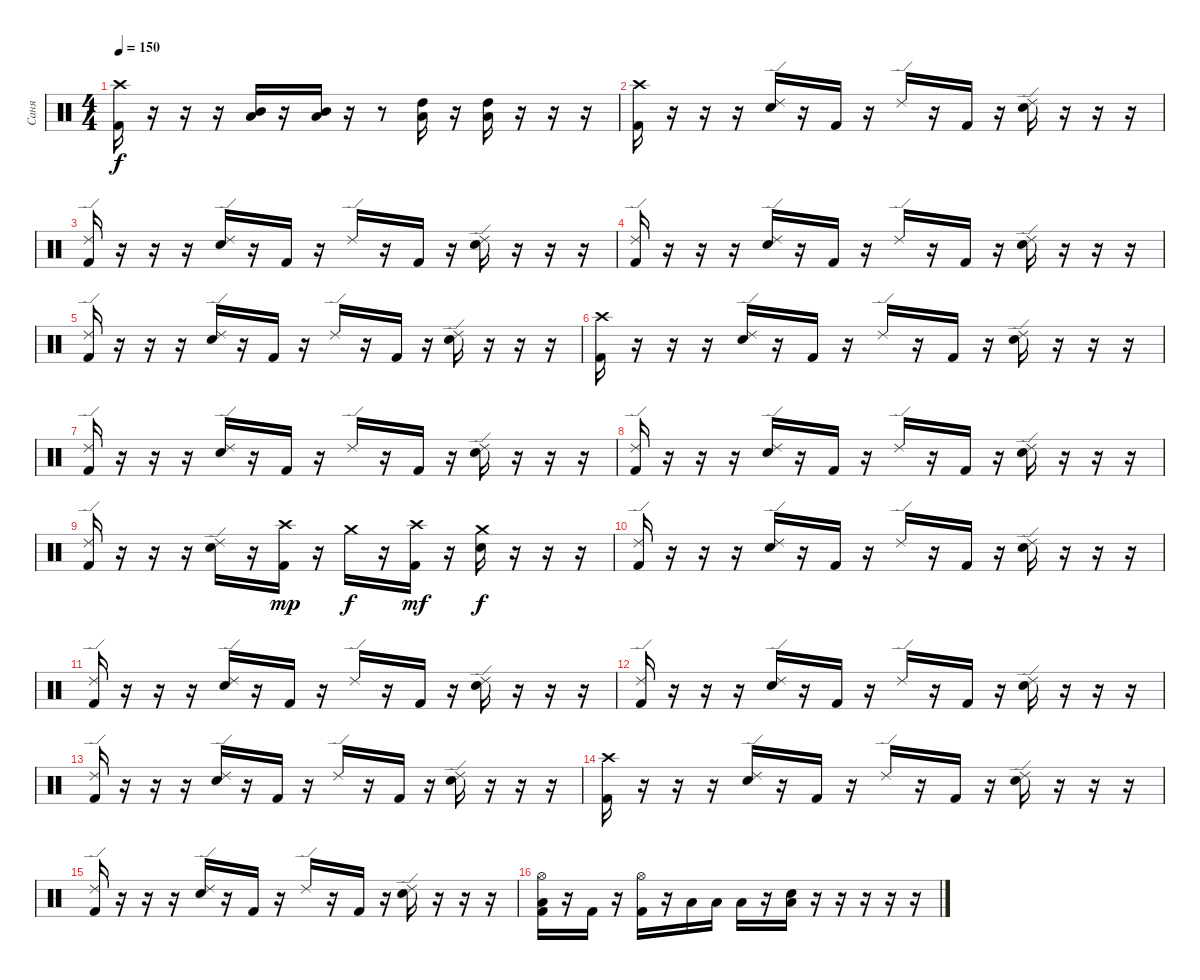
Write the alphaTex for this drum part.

\track ("Саня" "Саня") {instrument percussion}
\staff {score}
\articulation defaults
\ts (4 4)
\section ("" "")
\tempo 150
\clef neutral
\ks c
("Kick (hit) 2" "Crash high (hit)").16{dy f} r.16 r.16 r.16 ("Mid Tom (hit)" "Low Floor Tom (hit)").16 r.16 ("Mid Tom (hit)" "Low Floor Tom (hit)").16 r.16 r.8 ("High Tom (hit)" "Low Floor Tom (hit)").16 r.16 ("High Tom (hit)" "Low Floor Tom (hit)").16 r.16 r.16 r.16 |
("Kick (hit) 2" "Crash high (hit)").16 r.16 r.16 r.16 ("Snare (hit) 2" "Ride (edge) 2").16 r.16 "Kick (hit) 2".16 r.16 "Ride (edge) 2".16 r.16 "Kick (hit) 2".16 r.16 ("Snare (hit) 2" "Ride (edge) 2").16 r.16 r.16 r.16 |
("Kick (hit) 2" "Ride (edge) 2").16 r.16 r.16 r.16 ("Snare (hit) 2" "Ride (edge) 2").16 r.16 "Kick (hit) 2".16 r.16 "Ride (edge) 2".16 r.16 "Kick (hit) 2".16 r.16 ("Snare (hit) 2" "Ride (edge) 2").16 r.16 r.16 r.16 |
("Kick (hit) 2" "Ride (edge) 2").16 r.16 r.16 r.16 ("Snare (hit) 2" "Ride (edge) 2").16 r.16 "Kick (hit) 2".16 r.16 "Ride (edge) 2".16 r.16 "Kick (hit) 2".16 r.16 ("Snare (hit) 2" "Ride (edge) 2").16 r.16 r.16 r.16 |
("Kick (hit) 2" "Ride (edge) 2").16 r.16 r.16 r.16 ("Snare (hit) 2" "Ride (edge) 2").16 r.16 "Kick (hit) 2".16 r.16 "Ride (edge) 2".16 r.16 "Kick (hit) 2".16 r.16 ("Snare (hit) 2" "Ride (edge) 2").16 r.16 r.16 r.16 |
("Kick (hit) 2" "Crash high (hit)").16 r.16 r.16 r.16 ("Snare (hit) 2" "Ride (edge) 2").16 r.16 "Kick (hit) 2".16 r.16 "Ride (edge) 2".16 r.16 "Kick (hit) 2".16 r.16 ("Snare (hit) 2" "Ride (edge) 2").16 r.16 r.16 r.16 |
("Kick (hit) 2" "Ride (edge) 2").16 r.16 r.16 r.16 ("Snare (hit) 2" "Ride (edge) 2").16 r.16 "Kick (hit) 2".16 r.16 "Ride (edge) 2".16 r.16 "Kick (hit) 2".16 r.16 ("Snare (hit) 2" "Ride (edge) 2").16 r.16 r.16 r.16 |
("Kick (hit) 2" "Ride (edge) 2").16 r.16 r.16 r.16 ("Snare (hit) 2" "Ride (edge) 2").16 r.16 "Kick (hit) 2".16 r.16 "Ride (edge) 2".16 r.16 "Kick (hit) 2".16 r.16 ("Snare (hit) 2" "Ride (edge) 2").16 r.16 r.16 r.16 |
("Kick (hit) 2" "Ride (edge) 2").16 r.16 r.16 r.16 ("Snare (hit) 2" "Ride (edge) 2").16 r.16 ("Kick (hit) 2" "Crash high (hit)").16{dy mp} r.16 "Crash medium (hit)".16{dy f} r.16 ("Kick (hit) 2" "Crash high (hit)").16{dy mf} r.16 ("Snare (hit) 2" "Crash medium (hit)").16{dy f} r.16 r.16 r.16 |
("Kick (hit) 2" "Ride (edge) 2").16 r.16 r.16 r.16 ("Snare (hit) 2" "Ride (edge) 2").16 r.16 "Kick (hit) 2".16 r.16 "Ride (edge) 2".16 r.16 "Kick (hit) 2".16 r.16 ("Snare (hit) 2" "Ride (edge) 2").16 r.16 r.16 r.16 |
("Kick (hit) 2" "Ride (edge) 2").16 r.16 r.16 r.16 ("Snare (hit) 2" "Ride (edge) 2").16 r.16 "Kick (hit) 2".16 r.16 "Ride (edge) 2".16 r.16 "Kick (hit) 2".16 r.16 ("Snare (hit) 2" "Ride (edge) 2").16 r.16 r.16 r.16 |
("Kick (hit) 2" "Ride (edge) 2").16 r.16 r.16 r.16 ("Snare (hit) 2" "Ride (edge) 2").16 r.16 "Kick (hit) 2".16 r.16 "Ride (edge) 2".16 r.16 "Kick (hit) 2".16 r.16 ("Snare (hit) 2" "Ride (edge) 2").16 r.16 r.16 r.16 |
("Kick (hit) 2" "Ride (edge) 2").16 r.16 r.16 r.16 ("Snare (hit) 2" "Ride (edge) 2").16 r.16 "Kick (hit) 2".16 r.16 "Ride (edge) 2".16 r.16 "Kick (hit) 2".16 r.16 ("Snare (hit) 2" "Ride (edge) 2").16 r.16 r.16 r.16 |
("Kick (hit) 2" "Crash high (hit)").16 r.16 r.16 r.16 ("Snare (hit) 2" "Ride (edge) 2").16 r.16 "Kick (hit) 2".16 r.16 "Ride (edge) 2".16 r.16 "Kick (hit) 2".16 r.16 ("Snare (hit) 2" "Ride (edge) 2").16 r.16 r.16 r.16 |
("Kick (hit) 2" "Ride (edge) 2").16 r.16 r.16 r.16 ("Snare (hit) 2" "Ride (edge) 2").16 r.16 "Kick (hit) 2".16 r.16 "Ride (edge) 2".16 r.16 "Kick (hit) 2".16 r.16 ("Snare (hit) 2" "Ride (edge) 2").16 r.16 r.16 r.16 |
("Low Floor Tom (hit)" "Hi-Hat (open)" "Kick (hit) 2").16 r.16 "Kick (hit) 2".16 r.16 ("Hi-Hat (open)" "Kick (hit) 2").16 r.16 "Low Floor Tom (hit)".16 "Low Floor Tom (hit)".16 "Low Floor Tom (hit)".16 r.16 ("Low Floor Tom (hit)" "Snare (hit) 2").16 r.16 r.16 r.16 r.16 r.16
